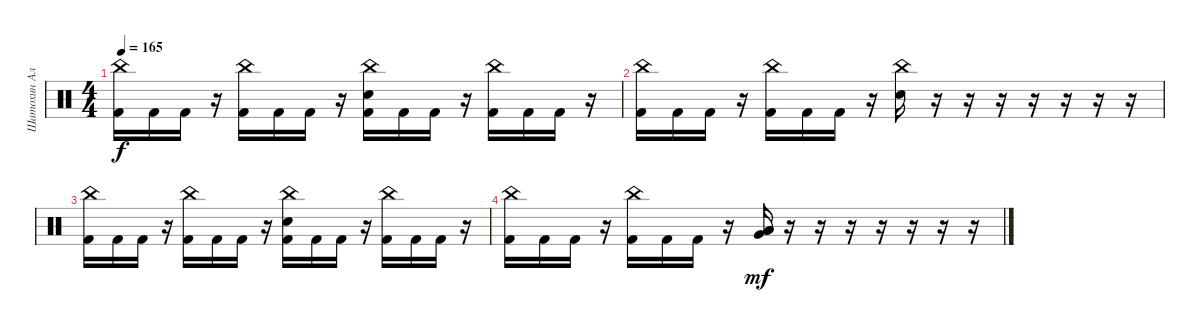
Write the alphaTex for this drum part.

\track ("Шатохин Алексей" "Шатохин Ал") {instrument percussion}
\staff {score}
\articulation defaults
\ts (4 4)
\tempo 165
\clef neutral
\ks c
("China (hit)" "Kick (hit) 2").16{dy f} "Kick (hit) 2".16 "Kick (hit) 2".16 r.16 ("China (hit)" "Kick (hit) 2").16 "Kick (hit) 2".16 "Kick (hit) 2".16 r.16 ("China (hit)" "Electric Snare (hit)" "Kick (hit) 2").16 "Kick (hit) 2".16 "Kick (hit) 2".16 r.16 ("China (hit)" "Kick (hit) 2").16 "Kick (hit) 2".16 "Kick (hit) 2".16 r.16 |
("China (hit)" "Kick (hit) 2").16 "Kick (hit) 2".16 "Kick (hit) 2".16 r.16 ("China (hit)" "Kick (hit) 2").16 "Kick (hit) 2".16 "Kick (hit) 2".16 r.16 ("China (hit)" "Electric Snare (hit)").16 r.16 r.16 r.16 r.16 r.16 r.16 r.16 |
("China (hit)" "Kick (hit) 2").16 "Kick (hit) 2".16 "Kick (hit) 2".16 r.16 ("China (hit)" "Kick (hit) 2").16 "Kick (hit) 2".16 "Kick (hit) 2".16 r.16 ("China (hit)" "Electric Snare (hit)" "Kick (hit) 2").16 "Kick (hit) 2".16 "Kick (hit) 2".16 r.16 ("China (hit)" "Kick (hit) 2").16 "Kick (hit) 2".16 "Kick (hit) 2".16 r.16 |
("China (hit)" "Kick (hit) 2").16 "Kick (hit) 2".16 "Kick (hit) 2".16 r.16 ("China (hit)" "Kick (hit) 2").16 "Kick (hit) 2".16 "Kick (hit) 2".16 r.16 ("Low Tom (hit)" "Very Low Tom (hit)" "Low Floor Tom (hit)").16{dy mf} r.16 r.16 r.16 r.16 r.16 r.16 r.16
